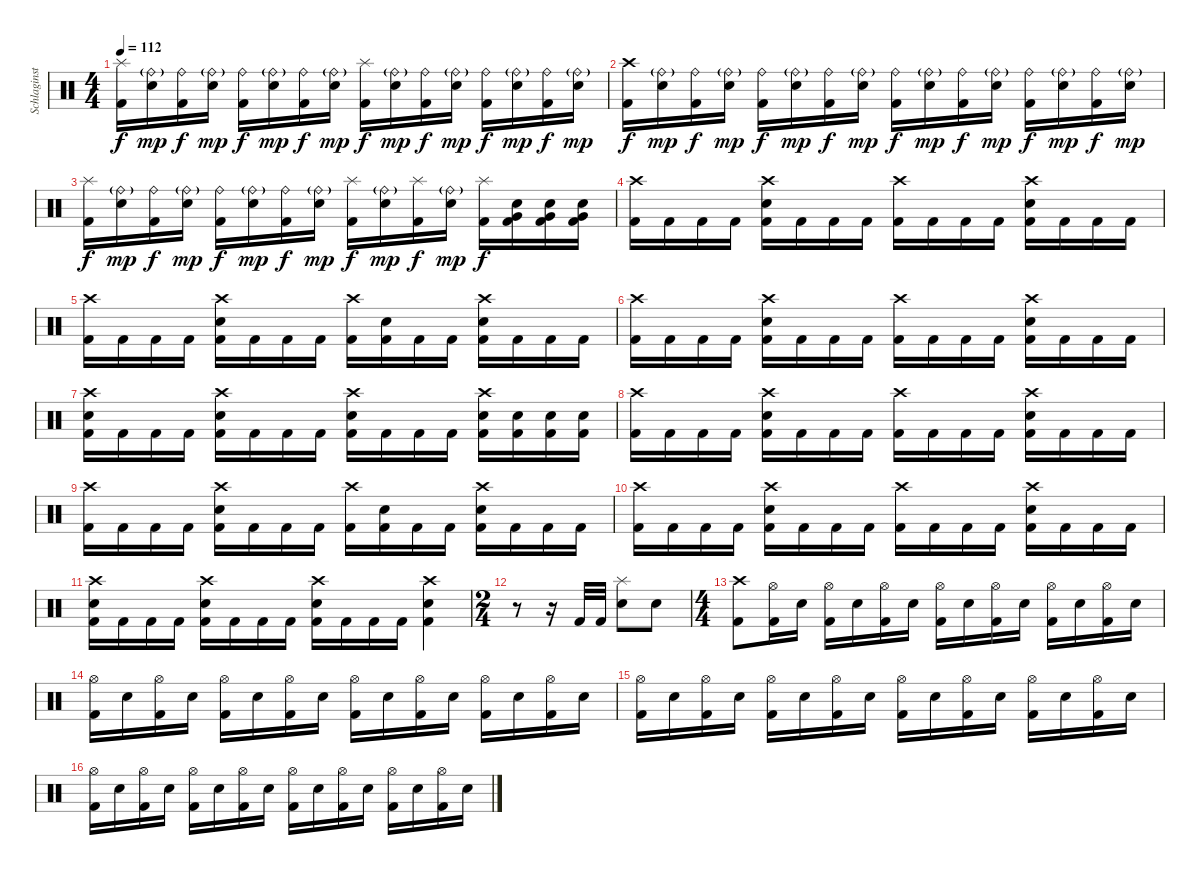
\track ("Schlaginstrumente - Auswahl" "Schlaginst") {instrument percussion}
\staff {score}
\articulation defaults
\ts (4 4)
\tempo 112
\clef neutral
\ks c
("Splash (hit)" "Kick (hit) 2").16{dy f} ("Ride (bell)"{g} "Snare (hit) 2").16{dy mp} ("Ride (bell)" "Kick (hit) 2").16{dy f} ("Ride (bell)"{g} "Snare (hit) 2").16{dy mp} ("Ride (bell)" "Kick (hit) 2").16{dy f} ("Ride (bell)"{g} "Snare (hit) 2").16{dy mp} ("Ride (bell)" "Kick (hit) 2").16{dy f} ("Ride (bell)"{g} "Snare (hit) 2").16{dy mp} ("Splash (hit)" "Kick (hit) 2").16{dy f} ("Ride (bell)"{g} "Snare (hit) 2").16{dy mp} ("Ride (bell)" "Kick (hit) 2").16{dy f} ("Ride (bell)"{g} "Snare (hit) 2").16{dy mp} ("Ride (bell)" "Kick (hit) 2").16{dy f} ("Ride (bell)"{g} "Snare (hit) 2").16{dy mp} ("Ride (bell)" "Kick (hit) 2").16{dy f} ("Ride (bell)"{g} "Snare (hit) 2").16{dy mp} |
("Crash high (hit)" "Kick (hit) 2").16{dy f} ("Ride (bell)"{g} "Snare (hit) 2").16{dy mp} ("Ride (bell)" "Kick (hit) 2").16{dy f} ("Ride (bell)"{g} "Snare (hit) 2").16{dy mp} ("Ride (bell)" "Kick (hit) 2").16{dy f} ("Ride (bell)"{g} "Snare (hit) 2").16{dy mp} ("Ride (bell)" "Kick (hit) 2").16{dy f} ("Ride (bell)"{g} "Snare (hit) 2").16{dy mp} ("Ride (bell)" "Kick (hit) 2").16{dy f} ("Ride (bell)"{g} "Snare (hit) 2").16{dy mp} ("Ride (bell)" "Kick (hit) 2").16{dy f} ("Ride (bell)"{g} "Snare (hit) 2").16{dy mp} ("Ride (bell)" "Kick (hit) 2").16{dy f} ("Ride (bell)"{g} "Snare (hit) 2").16{dy mp} ("Ride (bell)" "Kick (hit) 2").16{dy f} ("Ride (bell)"{g} "Snare (hit) 2").16{dy mp} |
("Splash (hit)" "Kick (hit) 2").16{dy f} ("Ride (bell)"{g} "Snare (hit) 2").16{dy mp} ("Ride (bell)" "Kick (hit) 2").16{dy f} ("Ride (bell)"{g} "Snare (hit) 2").16{dy mp} ("Ride (bell)" "Kick (hit) 2").16{dy f} ("Ride (bell)"{g} "Snare (hit) 2").16{dy mp} ("Ride (bell)" "Kick (hit) 2").16{dy f} ("Ride (bell)"{g} "Snare (hit) 2").16{dy mp} ("Splash (hit)" "Kick (hit) 2").16{dy f} ("Ride (bell)"{g} "Snare (hit) 2").16{dy mp} ("Splash (hit)" "Kick (hit) 2").16{dy f} ("Ride (bell)"{g} "Snare (hit) 2").16{dy mp} ("Splash (hit)" "Kick (hit) 2").16{dy f} ("Snare (hit) 2" "Very Low Tom (hit)" "Kick (hit) 2").16 ("Snare (hit) 2" "Very Low Tom (hit)" "Kick (hit) 2").16 ("Snare (hit) 2" "Very Low Tom (hit)" "Kick (hit) 2").16 |
("Crash high (hit)" "Kick (hit) 2").16 "Kick (hit) 2".16 "Kick (hit) 2".16 "Kick (hit) 2".16 ("Crash high (hit)" "Snare (hit) 2" "Kick (hit) 2").16 "Kick (hit) 2".16 "Kick (hit) 2".16 "Kick (hit) 2".16 ("Crash high (hit)" "Kick (hit) 2").16 "Kick (hit) 2".16 "Kick (hit) 2".16 "Kick (hit) 2".16 ("Crash high (hit)" "Snare (hit) 2" "Kick (hit) 2").16 "Kick (hit) 2".16 "Kick (hit) 2".16 "Kick (hit) 2".16 |
("Crash high (hit)" "Kick (hit) 2").16 "Kick (hit) 2".16 "Kick (hit) 2".16 "Kick (hit) 2".16 ("Crash high (hit)" "Snare (hit) 2" "Kick (hit) 2").16 "Kick (hit) 2".16 "Kick (hit) 2".16 "Kick (hit) 2".16 ("Crash high (hit)" "Kick (hit) 2").16 ("Snare (hit) 2" "Kick (hit) 2").16 "Kick (hit) 2".16 "Kick (hit) 2".16 ("Crash high (hit)" "Snare (hit) 2" "Kick (hit) 2").16 "Kick (hit) 2".16 "Kick (hit) 2".16 "Kick (hit) 2".16 |
("Crash high (hit)" "Kick (hit) 2").16 "Kick (hit) 2".16 "Kick (hit) 2".16 "Kick (hit) 2".16 ("Crash high (hit)" "Snare (hit) 2" "Kick (hit) 2").16 "Kick (hit) 2".16 "Kick (hit) 2".16 "Kick (hit) 2".16 ("Crash high (hit)" "Kick (hit) 2").16 "Kick (hit) 2".16 "Kick (hit) 2".16 "Kick (hit) 2".16 ("Crash high (hit)" "Snare (hit) 2" "Kick (hit) 2").16 "Kick (hit) 2".16 "Kick (hit) 2".16 "Kick (hit) 2".16 |
("Crash high (hit)" "Snare (hit) 2" "Kick (hit) 2").16 "Kick (hit) 2".16 "Kick (hit) 2".16 "Kick (hit) 2".16 ("Crash high (hit)" "Snare (hit) 2" "Kick (hit) 2").16 "Kick (hit) 2".16 "Kick (hit) 2".16 "Kick (hit) 2".16 ("Crash high (hit)" "Snare (hit) 2" "Kick (hit) 2").16 "Kick (hit) 2".16 "Kick (hit) 2".16 "Kick (hit) 2".16 ("Crash high (hit)" "Snare (hit) 2" "Kick (hit) 2").16 ("Snare (hit) 2" "Kick (hit) 2").16 ("Snare (hit) 2" "Kick (hit) 2").16 ("Snare (hit) 2" "Kick (hit) 2").16 |
("Crash high (hit)" "Kick (hit) 2").16 "Kick (hit) 2".16 "Kick (hit) 2".16 "Kick (hit) 2".16 ("Crash high (hit)" "Snare (hit) 2" "Kick (hit) 2").16 "Kick (hit) 2".16 "Kick (hit) 2".16 "Kick (hit) 2".16 ("Crash high (hit)" "Kick (hit) 2").16 "Kick (hit) 2".16 "Kick (hit) 2".16 "Kick (hit) 2".16 ("Crash high (hit)" "Snare (hit) 2" "Kick (hit) 2").16 "Kick (hit) 2".16 "Kick (hit) 2".16 "Kick (hit) 2".16 |
("Crash high (hit)" "Kick (hit) 2").16 "Kick (hit) 2".16 "Kick (hit) 2".16 "Kick (hit) 2".16 ("Crash high (hit)" "Snare (hit) 2" "Kick (hit) 2").16 "Kick (hit) 2".16 "Kick (hit) 2".16 "Kick (hit) 2".16 ("Crash high (hit)" "Kick (hit) 2").16 ("Snare (hit) 2" "Kick (hit) 2").16 "Kick (hit) 2".16 "Kick (hit) 2".16 ("Crash high (hit)" "Snare (hit) 2" "Kick (hit) 2").16 "Kick (hit) 2".16 "Kick (hit) 2".16 "Kick (hit) 2".16 |
("Crash high (hit)" "Kick (hit) 2").16 "Kick (hit) 2".16 "Kick (hit) 2".16 "Kick (hit) 2".16 ("Crash high (hit)" "Snare (hit) 2" "Kick (hit) 2").16 "Kick (hit) 2".16 "Kick (hit) 2".16 "Kick (hit) 2".16 ("Crash high (hit)" "Kick (hit) 2").16 "Kick (hit) 2".16 "Kick (hit) 2".16 "Kick (hit) 2".16 ("Crash high (hit)" "Snare (hit) 2" "Kick (hit) 2").16 "Kick (hit) 2".16 "Kick (hit) 2".16 "Kick (hit) 2".16 |
("Crash high (hit)" "Snare (hit) 2" "Kick (hit) 2").16 "Kick (hit) 2".16 "Kick (hit) 2".16 "Kick (hit) 2".16 ("Crash high (hit)" "Snare (hit) 2" "Kick (hit) 2").16 "Kick (hit) 2".16 "Kick (hit) 2".16 "Kick (hit) 2".16 ("Crash high (hit)" "Snare (hit) 2" "Kick (hit) 2").16 "Kick (hit) 2".16 "Kick (hit) 2".16 "Kick (hit) 2".16 ("Crash high (hit)" "Snare (hit) 2" "Kick (hit) 2").4 |
\ts (2 4)
r.8 r.16 "Kick (hit) 2".32 "Kick (hit) 2".32 ("Splash (hit)" "Snare (hit) 2").8 "Snare (hit) 2".8 |
\ts (4 4)
("Crash high (hit)" "Kick (hit) 2").8 ("Hi-Hat (open)" "Kick (hit) 2").16 "Snare (hit) 2".16 ("Hi-Hat (open)" "Kick (hit) 2").16 "Snare (hit) 2".16 ("Hi-Hat (open)" "Kick (hit) 2").16 "Snare (hit) 2".16 ("Hi-Hat (open)" "Kick (hit) 2").16 "Snare (hit) 2".16 ("Hi-Hat (open)" "Kick (hit) 2").16 "Snare (hit) 2".16 ("Hi-Hat (open)" "Kick (hit) 2").16 "Snare (hit) 2".16 ("Hi-Hat (open)" "Kick (hit) 2").16 "Snare (hit) 2".16 |
("Hi-Hat (open)" "Kick (hit) 2").16 "Snare (hit) 2".16 ("Hi-Hat (open)" "Kick (hit) 2").16 "Snare (hit) 2".16 ("Hi-Hat (open)" "Kick (hit) 2").16 "Snare (hit) 2".16 ("Hi-Hat (open)" "Kick (hit) 2").16 "Snare (hit) 2".16 ("Hi-Hat (open)" "Kick (hit) 2").16 "Snare (hit) 2".16 ("Hi-Hat (open)" "Kick (hit) 2").16 "Snare (hit) 2".16 ("Hi-Hat (open)" "Kick (hit) 2").16 "Snare (hit) 2".16 ("Hi-Hat (open)" "Kick (hit) 2").16 "Snare (hit) 2".16 |
("Hi-Hat (open)" "Kick (hit) 2").16 "Snare (hit) 2".16 ("Hi-Hat (open)" "Kick (hit) 2").16 "Snare (hit) 2".16 ("Hi-Hat (open)" "Kick (hit) 2").16 "Snare (hit) 2".16 ("Hi-Hat (open)" "Kick (hit) 2").16 "Snare (hit) 2".16 ("Hi-Hat (open)" "Kick (hit) 2").16 "Snare (hit) 2".16 ("Hi-Hat (open)" "Kick (hit) 2").16 "Snare (hit) 2".16 ("Hi-Hat (open)" "Kick (hit) 2").16 "Snare (hit) 2".16 ("Hi-Hat (open)" "Kick (hit) 2").16 "Snare (hit) 2".16 |
("Hi-Hat (open)" "Kick (hit) 2").16 "Snare (hit) 2".16 ("Hi-Hat (open)" "Kick (hit) 2").16 "Snare (hit) 2".16 ("Hi-Hat (open)" "Kick (hit) 2").16 "Snare (hit) 2".16 ("Hi-Hat (open)" "Kick (hit) 2").16 "Snare (hit) 2".16 ("Hi-Hat (open)" "Kick (hit) 2").16 "Snare (hit) 2".16 ("Hi-Hat (open)" "Kick (hit) 2").16 "Snare (hit) 2".16 ("Hi-Hat (open)" "Kick (hit) 2").16 "Snare (hit) 2".16 ("Hi-Hat (open)" "Kick (hit) 2").16 "Snare (hit) 2".16
